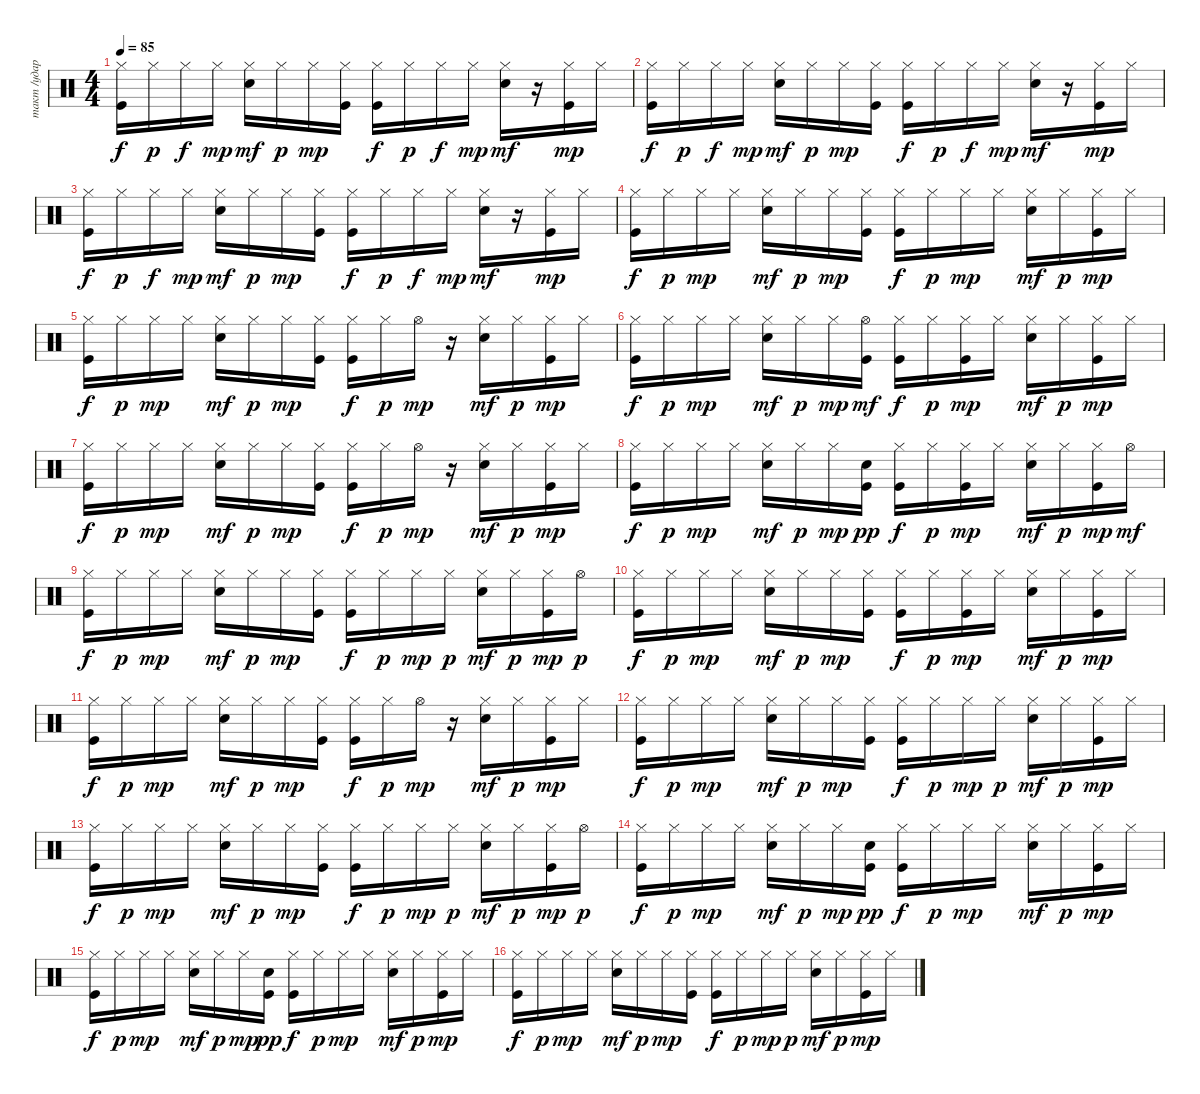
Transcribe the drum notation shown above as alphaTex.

\track ("такт /ударные/" "такт /удар") {instrument percussion}
\staff {score}
\articulation defaults
\ts (4 4)
\tempo 85
\clef neutral
\ks c
("Kick (hit)" "Hi-Hat (closed)").16{dy f} "Hi-Hat (closed)".16{dy p} "Hi-Hat (closed)".16{dy f} "Hi-Hat (closed)".16{dy mp} ("Snare (hit) 2" "Hi-Hat (closed)").16{dy mf} "Hi-Hat (closed)".16{dy p} "Hi-Hat (closed)".16{dy mp} ("Kick (hit)" "Hi-Hat (closed)").16 ("Kick (hit)" "Hi-Hat (closed)").16{dy f} "Hi-Hat (closed)".16{dy p} "Hi-Hat (closed)".16{dy f} "Hi-Hat (closed)".16{dy mp} ("Snare (hit) 2" "Hi-Hat (closed)").16{dy mf} r.16 ("Kick (hit)" "Hi-Hat (closed)").16{dy mp} "Hi-Hat (closed)".16 |
("Kick (hit)" "Hi-Hat (closed)").16{dy f} "Hi-Hat (closed)".16{dy p} "Hi-Hat (closed)".16{dy f} "Hi-Hat (closed)".16{dy mp} ("Snare (hit) 2" "Hi-Hat (closed)").16{dy mf} "Hi-Hat (closed)".16{dy p} "Hi-Hat (closed)".16{dy mp} ("Kick (hit)" "Hi-Hat (closed)").16 ("Kick (hit)" "Hi-Hat (closed)").16{dy f} "Hi-Hat (closed)".16{dy p} "Hi-Hat (closed)".16{dy f} "Hi-Hat (closed)".16{dy mp} ("Snare (hit) 2" "Hi-Hat (closed)").16{dy mf} r.16 ("Kick (hit)" "Hi-Hat (closed)").16{dy mp} "Hi-Hat (closed)".16 |
("Kick (hit)" "Hi-Hat (closed)").16{dy f} "Hi-Hat (closed)".16{dy p} "Hi-Hat (closed)".16{dy f} "Hi-Hat (closed)".16{dy mp} ("Snare (hit) 2" "Hi-Hat (closed)").16{dy mf} "Hi-Hat (closed)".16{dy p} "Hi-Hat (closed)".16{dy mp} ("Kick (hit)" "Hi-Hat (closed)").16 ("Kick (hit)" "Hi-Hat (closed)").16{dy f} "Hi-Hat (closed)".16{dy p} "Hi-Hat (closed)".16{dy f} "Hi-Hat (closed)".16{dy mp} ("Snare (hit) 2" "Hi-Hat (closed)").16{dy mf} r.16 ("Kick (hit)" "Hi-Hat (closed)").16{dy mp} "Hi-Hat (closed)".16 |
("Kick (hit)" "Hi-Hat (closed)").16{dy f} "Hi-Hat (closed)".16{dy p} "Hi-Hat (closed)".16{dy mp} "Hi-Hat (closed)".16 ("Snare (hit) 2" "Hi-Hat (closed)").16{dy mf} "Hi-Hat (closed)".16{dy p} "Hi-Hat (closed)".16{dy mp} ("Kick (hit)" "Hi-Hat (closed)").16 ("Kick (hit)" "Hi-Hat (closed)").16{dy f} "Hi-Hat (closed)".16{dy p} "Hi-Hat (closed)".16{dy mp} "Hi-Hat (closed)".16 ("Snare (hit) 2" "Hi-Hat (closed)").16{dy mf} "Hi-Hat (closed)".16{dy p} ("Kick (hit)" "Hi-Hat (closed)").16{dy mp} "Hi-Hat (closed)".16 |
("Kick (hit)" "Hi-Hat (closed)").16{dy f} "Hi-Hat (closed)".16{dy p} "Hi-Hat (closed)".16{dy mp} "Hi-Hat (closed)".16 ("Snare (hit) 2" "Hi-Hat (closed)").16{dy mf} "Hi-Hat (closed)".16{dy p} "Hi-Hat (closed)".16{dy mp} ("Kick (hit)" "Hi-Hat (closed)").16 ("Kick (hit)" "Hi-Hat (closed)").16{dy f} "Hi-Hat (closed)".16{dy p} "Hi-Hat (open)".16{dy mp} r.16 ("Snare (hit) 2" "Hi-Hat (closed)").16{dy mf} "Hi-Hat (closed)".16{dy p} ("Kick (hit)" "Hi-Hat (closed)").16{dy mp} "Hi-Hat (closed)".16 |
("Kick (hit)" "Hi-Hat (closed)").16{dy f} "Hi-Hat (closed)".16{dy p} "Hi-Hat (closed)".16{dy mp} "Hi-Hat (closed)".16 ("Snare (hit) 2" "Hi-Hat (closed)").16{dy mf} "Hi-Hat (closed)".16{dy p} "Hi-Hat (closed)".16{dy mp} ("Kick (hit)" "Hi-Hat (open)").16{dy mf} ("Kick (hit)" "Hi-Hat (closed)").16{dy f} "Hi-Hat (closed)".16{dy p} ("Kick (hit)" "Hi-Hat (closed)").16{dy mp} "Hi-Hat (closed)".16 ("Snare (hit) 2" "Hi-Hat (closed)").16{dy mf} "Hi-Hat (closed)".16{dy p} ("Kick (hit)" "Hi-Hat (closed)").16{dy mp} "Hi-Hat (closed)".16 |
("Kick (hit)" "Hi-Hat (closed)").16{dy f} "Hi-Hat (closed)".16{dy p} "Hi-Hat (closed)".16{dy mp} "Hi-Hat (closed)".16 ("Snare (hit) 2" "Hi-Hat (closed)").16{dy mf} "Hi-Hat (closed)".16{dy p} "Hi-Hat (closed)".16{dy mp} ("Kick (hit)" "Hi-Hat (closed)").16 ("Kick (hit)" "Hi-Hat (closed)").16{dy f} "Hi-Hat (closed)".16{dy p} "Hi-Hat (open)".16{dy mp} r.16 ("Snare (hit) 2" "Hi-Hat (closed)").16{dy mf} "Hi-Hat (closed)".16{dy p} ("Kick (hit)" "Hi-Hat (closed)").16{dy mp} "Hi-Hat (closed)".16 |
("Kick (hit)" "Hi-Hat (closed)").16{dy f} "Hi-Hat (closed)".16{dy p} "Hi-Hat (closed)".16{dy mp} "Hi-Hat (closed)".16 ("Snare (hit) 2" "Hi-Hat (closed)").16{dy mf} "Hi-Hat (closed)".16{dy p} "Hi-Hat (closed)".16{dy mp} ("Kick (hit)" "Snare (hit) 2").16{dy pp} ("Kick (hit)" "Hi-Hat (closed)").16{dy f} "Hi-Hat (closed)".16{dy p} ("Kick (hit)" "Hi-Hat (closed)").16{dy mp} "Hi-Hat (closed)".16 ("Snare (hit) 2" "Hi-Hat (closed)").16{dy mf} "Hi-Hat (closed)".16{dy p} ("Kick (hit)" "Hi-Hat (closed)").16{dy mp} "Hi-Hat (open)".16{dy mf} |
("Kick (hit)" "Hi-Hat (closed)").16{dy f} "Hi-Hat (closed)".16{dy p} "Hi-Hat (closed)".16{dy mp} "Hi-Hat (closed)".16 ("Snare (hit) 2" "Hi-Hat (closed)").16{dy mf} "Hi-Hat (closed)".16{dy p} "Hi-Hat (closed)".16{dy mp} ("Kick (hit)" "Hi-Hat (closed)").16 ("Kick (hit)" "Hi-Hat (closed)").16{dy f} "Hi-Hat (closed)".16{dy p} "Hi-Hat (closed)".16{dy mp} "Hi-Hat (closed)".16{dy p} ("Snare (hit) 2" "Hi-Hat (closed)").16{dy mf} "Hi-Hat (closed)".16{dy p} ("Kick (hit)" "Hi-Hat (closed)").16{dy mp} "Hi-Hat (open)".16{dy p} |
("Kick (hit)" "Hi-Hat (closed)").16{dy f} "Hi-Hat (closed)".16{dy p} "Hi-Hat (closed)".16{dy mp} "Hi-Hat (closed)".16 ("Snare (hit) 2" "Hi-Hat (closed)").16{dy mf} "Hi-Hat (closed)".16{dy p} "Hi-Hat (closed)".16{dy mp} ("Kick (hit)" "Hi-Hat (closed)").16 ("Kick (hit)" "Hi-Hat (closed)").16{dy f} "Hi-Hat (closed)".16{dy p} ("Kick (hit)" "Hi-Hat (closed)").16{dy mp} "Hi-Hat (closed)".16 ("Snare (hit) 2" "Hi-Hat (closed)").16{dy mf} "Hi-Hat (closed)".16{dy p} ("Kick (hit)" "Hi-Hat (closed)").16{dy mp} "Hi-Hat (closed)".16 |
("Kick (hit)" "Hi-Hat (closed)").16{dy f} "Hi-Hat (closed)".16{dy p} "Hi-Hat (closed)".16{dy mp} "Hi-Hat (closed)".16 ("Snare (hit) 2" "Hi-Hat (closed)").16{dy mf} "Hi-Hat (closed)".16{dy p} "Hi-Hat (closed)".16{dy mp} ("Kick (hit)" "Hi-Hat (closed)").16 ("Kick (hit)" "Hi-Hat (closed)").16{dy f} "Hi-Hat (closed)".16{dy p} "Hi-Hat (open)".16{dy mp} r.16 ("Snare (hit) 2" "Hi-Hat (closed)").16{dy mf} "Hi-Hat (closed)".16{dy p} ("Kick (hit)" "Hi-Hat (closed)").16{dy mp} "Hi-Hat (closed)".16 |
("Kick (hit)" "Hi-Hat (closed)").16{dy f} "Hi-Hat (closed)".16{dy p} "Hi-Hat (closed)".16{dy mp} "Hi-Hat (closed)".16 ("Snare (hit) 2" "Hi-Hat (closed)").16{dy mf} "Hi-Hat (closed)".16{dy p} "Hi-Hat (closed)".16{dy mp} ("Kick (hit)" "Hi-Hat (closed)").16 ("Kick (hit)" "Hi-Hat (closed)").16{dy f} "Hi-Hat (closed)".16{dy p} "Hi-Hat (closed)".16{dy mp} "Hi-Hat (closed)".16{dy p} ("Snare (hit) 2" "Hi-Hat (closed)").16{dy mf} "Hi-Hat (closed)".16{dy p} ("Kick (hit)" "Hi-Hat (closed)").16{dy mp} "Hi-Hat (closed)".16 |
("Kick (hit)" "Hi-Hat (closed)").16{dy f} "Hi-Hat (closed)".16{dy p} "Hi-Hat (closed)".16{dy mp} "Hi-Hat (closed)".16 ("Snare (hit) 2" "Hi-Hat (closed)").16{dy mf} "Hi-Hat (closed)".16{dy p} "Hi-Hat (closed)".16{dy mp} ("Kick (hit)" "Hi-Hat (closed)").16 ("Kick (hit)" "Hi-Hat (closed)").16{dy f} "Hi-Hat (closed)".16{dy p} "Hi-Hat (closed)".16{dy mp} "Hi-Hat (closed)".16{dy p} ("Snare (hit) 2" "Hi-Hat (closed)").16{dy mf} "Hi-Hat (closed)".16{dy p} ("Kick (hit)" "Hi-Hat (closed)").16{dy mp} "Hi-Hat (open)".16{dy p} |
("Kick (hit)" "Hi-Hat (closed)").16{dy f} "Hi-Hat (closed)".16{dy p} "Hi-Hat (closed)".16{dy mp} "Hi-Hat (closed)".16 ("Snare (hit) 2" "Hi-Hat (closed)").16{dy mf} "Hi-Hat (closed)".16{dy p} "Hi-Hat (closed)".16{dy mp} ("Kick (hit)" "Snare (hit) 2").16{dy pp} ("Kick (hit)" "Hi-Hat (closed)").16{dy f} "Hi-Hat (closed)".16{dy p} "Hi-Hat (closed)".16{dy mp} "Hi-Hat (closed)".16 ("Snare (hit) 2" "Hi-Hat (closed)").16{dy mf} "Hi-Hat (closed)".16{dy p} ("Kick (hit)" "Hi-Hat (closed)").16{dy mp} "Hi-Hat (closed)".16 |
("Kick (hit)" "Hi-Hat (closed)").16{dy f} "Hi-Hat (closed)".16{dy p} "Hi-Hat (closed)".16{dy mp} "Hi-Hat (closed)".16 ("Snare (hit) 2" "Hi-Hat (closed)").16{dy mf} "Hi-Hat (closed)".16{dy p} "Hi-Hat (closed)".16{dy mp} ("Kick (hit)" "Snare (hit) 2").16{dy pp} ("Kick (hit)" "Hi-Hat (closed)").16{dy f} "Hi-Hat (closed)".16{dy p} "Hi-Hat (closed)".16{dy mp} "Hi-Hat (closed)".16 ("Snare (hit) 2" "Hi-Hat (closed)").16{dy mf} "Hi-Hat (closed)".16{dy p} ("Kick (hit)" "Hi-Hat (closed)").16{dy mp} "Hi-Hat (closed)".16 |
("Kick (hit)" "Hi-Hat (closed)").16{dy f} "Hi-Hat (closed)".16{dy p} "Hi-Hat (closed)".16{dy mp} "Hi-Hat (closed)".16 ("Snare (hit) 2" "Hi-Hat (closed)").16{dy mf} "Hi-Hat (closed)".16{dy p} "Hi-Hat (closed)".16{dy mp} ("Kick (hit)" "Hi-Hat (closed)").16 ("Kick (hit)" "Hi-Hat (closed)").16{dy f} "Hi-Hat (closed)".16{dy p} "Hi-Hat (closed)".16{dy mp} "Hi-Hat (closed)".16{dy p} ("Snare (hit) 2" "Hi-Hat (closed)").16{dy mf} "Hi-Hat (closed)".16{dy p} ("Kick (hit)" "Hi-Hat (closed)").16{dy mp} "Hi-Hat (closed)".16
